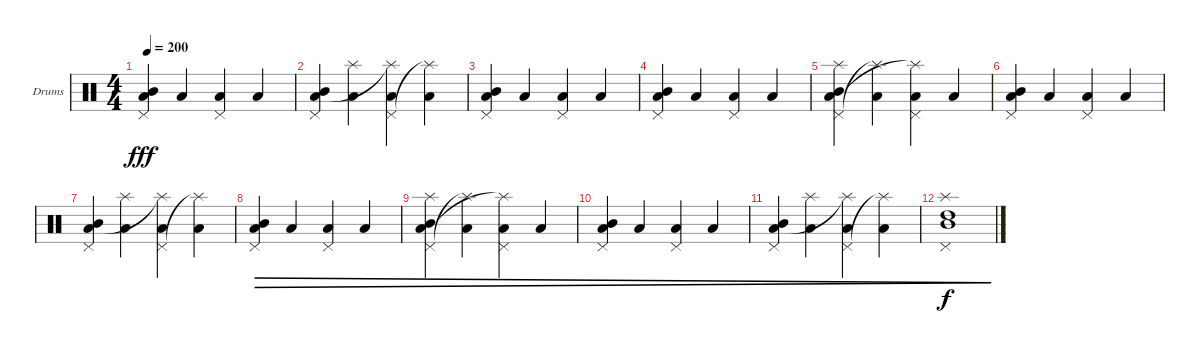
\defaultSystemsLayout 4
\bracketExtendMode groupsimilarinstruments
\firstSystemTrackNameOrientation horizontal
\otherSystemsTrackNameOrientation horizontal
\track ("Drumkit" "Drums") {instrument percussion}
\staff {score}
\articulation defaults
\ts (4 4)
\tempo 200
\clef neutral
\ks c
("Mid Tom (hit)" "Pedal Hi-Hat (hit)" "Low Tom (hit)").4{dy fff} "Low Tom (hit)".4 ("Low Tom (hit)" "Pedal Hi-Hat (hit)").4 "Low Tom (hit)".4 |
("Mid Tom (hit)" "Pedal Hi-Hat (hit)" "Low Tom (hit)").4 ("Low Tom (hit)" "Splash (hit)").4 ("Low Tom (hit)" "Pedal Hi-Hat (hit)" "Splash (hit)"{t}).4 ("Low Tom (hit)" "Splash (hit)"{t}).4 |
("Mid Tom (hit)" "Pedal Hi-Hat (hit)" "Low Tom (hit)").4 "Low Tom (hit)".4 ("Low Tom (hit)" "Pedal Hi-Hat (hit)").4 "Low Tom (hit)".4 |
("Mid Tom (hit)" "Pedal Hi-Hat (hit)" "Low Tom (hit)").4 "Low Tom (hit)".4 ("Low Tom (hit)" "Pedal Hi-Hat (hit)").4 "Low Tom (hit)".4 |
("Mid Tom (hit)" "Pedal Hi-Hat (hit)" "Low Tom (hit)" "Splash (hit)").4 ("Low Tom (hit)" "Splash (hit)"{t}).4 ("Low Tom (hit)" "Pedal Hi-Hat (hit)" "Splash (hit)"{t}).4 "Low Tom (hit)".4 |
("Mid Tom (hit)" "Pedal Hi-Hat (hit)" "Low Tom (hit)").4 "Low Tom (hit)".4 ("Low Tom (hit)" "Pedal Hi-Hat (hit)").4 "Low Tom (hit)".4 |
("Mid Tom (hit)" "Pedal Hi-Hat (hit)" "Low Tom (hit)").4 ("Low Tom (hit)" "Splash (hit)").4 ("Low Tom (hit)" "Pedal Hi-Hat (hit)" "Splash (hit)"{t}).4 ("Low Tom (hit)" "Splash (hit)"{t}).4 |
("Mid Tom (hit)" "Pedal Hi-Hat (hit)" "Low Tom (hit)").4{dec} "Low Tom (hit)".4{dec} ("Low Tom (hit)" "Pedal Hi-Hat (hit)").4{dec} "Low Tom (hit)".4{dec} |
("Mid Tom (hit)" "Pedal Hi-Hat (hit)" "Low Tom (hit)" "Splash (hit)").4{dec} ("Low Tom (hit)" "Splash (hit)"{t}).4{dec} ("Low Tom (hit)" "Pedal Hi-Hat (hit)" "Splash (hit)"{t}).4{dec} "Low Tom (hit)".4{dec} |
("Mid Tom (hit)" "Pedal Hi-Hat (hit)" "Low Tom (hit)").4{dec} "Low Tom (hit)".4{dec} ("Low Tom (hit)" "Pedal Hi-Hat (hit)").4{dec} "Low Tom (hit)".4{dec} |
("Mid Tom (hit)" "Pedal Hi-Hat (hit)" "Low Tom (hit)").4{dec} ("Low Tom (hit)" "Splash (hit)").4{dec} ("Low Tom (hit)" "Pedal Hi-Hat (hit)" "Splash (hit)"{t}).4{dec} ("Low Tom (hit)" "Splash (hit)"{t}).4{dec} |
("Mid Tom (hit)" "High Tom (hit)" "Splash (hit)" "Pedal Hi-Hat (hit)").1{dec dy f}
